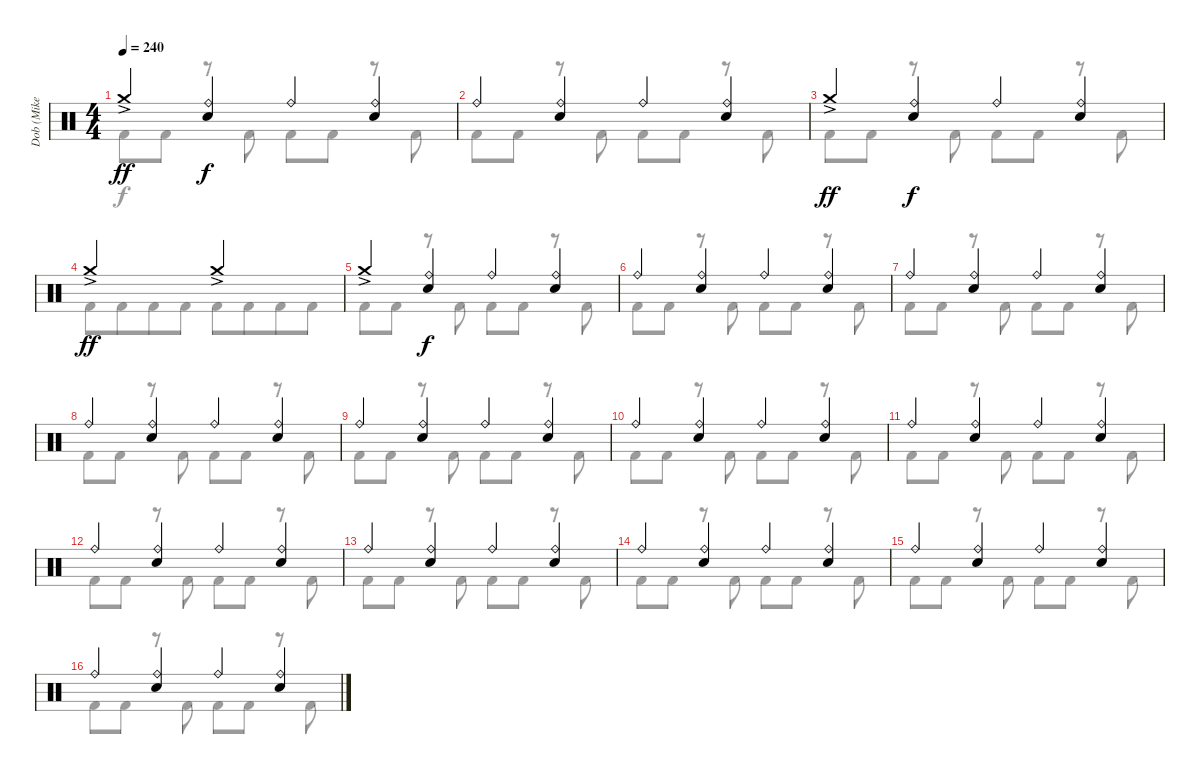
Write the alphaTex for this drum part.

\track ("Dob (Mike Terrana)" "Dob (Mike ") {instrument percussion}
\staff {score}
\articulation defaults
\voice
\ts (4 4)
\tempo 240
\clef neutral
\ks c "Crash medium (hit)"{ac}.4{dy ff}
("Ride (bell)" "Electric Snare (hit)").4{dy f} "Ride (bell)".4 ("Ride (bell)" "Electric Snare (hit)").4 |
"Ride (bell)".4 ("Ride (bell)" "Electric Snare (hit)").4 "Ride (bell)".4 ("Ride (bell)" "Electric Snare (hit)").4 |
"Crash medium (hit)"{ac}.4{dy ff} ("Ride (bell)" "Electric Snare (hit)").4{dy f} "Ride (bell)".4 ("Ride (bell)" "Electric Snare (hit)").4 |
"Crash medium (hit)"{ac}.2{dy ff} "Crash medium (hit)"{ac}.2 |
"Crash medium (hit)"{ac}.4 ("Ride (bell)" "Electric Snare (hit)").4{dy f} "Ride (bell)".4 ("Ride (bell)" "Electric Snare (hit)").4 |
"Ride (bell)".4 ("Ride (bell)" "Electric Snare (hit)").4 "Ride (bell)".4 ("Ride (bell)" "Electric Snare (hit)").4 |
"Ride (bell)".4 ("Ride (bell)" "Electric Snare (hit)").4 "Ride (bell)".4 ("Ride (bell)" "Electric Snare (hit)").4 |
"Ride (bell)".4 ("Ride (bell)" "Electric Snare (hit)").4 "Ride (bell)".4 ("Ride (bell)" "Electric Snare (hit)").4 |
"Ride (bell)".4 ("Ride (bell)" "Electric Snare (hit)").4 "Ride (bell)".4 ("Ride (bell)" "Electric Snare (hit)").4 |
"Ride (bell)".4 ("Ride (bell)" "Electric Snare (hit)").4 "Ride (bell)".4 ("Ride (bell)" "Electric Snare (hit)").4 |
"Ride (bell)".4 ("Ride (bell)" "Electric Snare (hit)").4 "Ride (bell)".4 ("Ride (bell)" "Electric Snare (hit)").4 |
"Ride (bell)".4 ("Ride (bell)" "Electric Snare (hit)").4 "Ride (bell)".4 ("Ride (bell)" "Electric Snare (hit)").4 |
"Ride (bell)".4 ("Ride (bell)" "Electric Snare (hit)").4 "Ride (bell)".4 ("Ride (bell)" "Electric Snare (hit)").4 |
"Ride (bell)".4 ("Ride (bell)" "Electric Snare (hit)").4 "Ride (bell)".4 ("Ride (bell)" "Electric Snare (hit)").4 |
"Ride (bell)".4 ("Ride (bell)" "Electric Snare (hit)").4 "Ride (bell)".4 ("Ride (bell)" "Electric Snare (hit)").4 |
"Ride (bell)".4 ("Ride (bell)" "Electric Snare (hit)").4 "Ride (bell)".4 ("Ride (bell)" "Electric Snare (hit)").4
\voice
\clef neutral
\ottava regular
\simile none
\ks c "Kick (hit) 2".8{dy f} "Kick (hit) 2".8
r.8 "Kick (hit) 2".8 "Kick (hit) 2".8 "Kick (hit) 2".8 r.8 "Kick (hit) 2".8 |
"Kick (hit) 2".8 "Kick (hit) 2".8 r.8 "Kick (hit) 2".8 "Kick (hit) 2".8 "Kick (hit) 2".8 r.8 "Kick (hit) 2".8 |
"Kick (hit) 2".8 "Kick (hit) 2".8 r.8 "Kick (hit) 2".8 "Kick (hit) 2".8 "Kick (hit) 2".8 r.8 "Kick (hit) 2".8 |
"Kick (hit) 2".8 "Kick (hit) 2".8{beam merge} "Kick (hit) 2".8 "Kick (hit) 2".8 "Kick (hit) 2".8 "Kick (hit) 2".8{beam merge} "Kick (hit) 2".8 "Kick (hit) 2".8 |
"Kick (hit) 2".8 "Kick (hit) 2".8 r.8 "Kick (hit) 2".8 "Kick (hit) 2".8 "Kick (hit) 2".8 r.8 "Kick (hit) 2".8 |
"Kick (hit) 2".8 "Kick (hit) 2".8 r.8 "Kick (hit) 2".8 "Kick (hit) 2".8 "Kick (hit) 2".8 r.8 "Kick (hit) 2".8 |
"Kick (hit) 2".8 "Kick (hit) 2".8 r.8 "Kick (hit) 2".8 "Kick (hit) 2".8 "Kick (hit) 2".8 r.8 "Kick (hit) 2".8 |
"Kick (hit) 2".8 "Kick (hit) 2".8 r.8 "Kick (hit) 2".8 "Kick (hit) 2".8 "Kick (hit) 2".8 r.8 "Kick (hit) 2".8 |
"Kick (hit) 2".8 "Kick (hit) 2".8 r.8 "Kick (hit) 2".8 "Kick (hit) 2".8 "Kick (hit) 2".8 r.8 "Kick (hit) 2".8 |
"Kick (hit) 2".8 "Kick (hit) 2".8 r.8 "Kick (hit) 2".8 "Kick (hit) 2".8 "Kick (hit) 2".8 r.8 "Kick (hit) 2".8 |
"Kick (hit) 2".8 "Kick (hit) 2".8 r.8 "Kick (hit) 2".8 "Kick (hit) 2".8 "Kick (hit) 2".8 r.8 "Kick (hit) 2".8 |
"Kick (hit) 2".8 "Kick (hit) 2".8 r.8 "Kick (hit) 2".8 "Kick (hit) 2".8 "Kick (hit) 2".8 r.8 "Kick (hit) 2".8 |
"Kick (hit) 2".8 "Kick (hit) 2".8 r.8 "Kick (hit) 2".8 "Kick (hit) 2".8 "Kick (hit) 2".8 r.8 "Kick (hit) 2".8 |
"Kick (hit) 2".8 "Kick (hit) 2".8 r.8 "Kick (hit) 2".8 "Kick (hit) 2".8 "Kick (hit) 2".8 r.8 "Kick (hit) 2".8 |
"Kick (hit) 2".8 "Kick (hit) 2".8 r.8 "Kick (hit) 2".8 "Kick (hit) 2".8 "Kick (hit) 2".8 r.8 "Kick (hit) 2".8 |
"Kick (hit) 2".8 "Kick (hit) 2".8 r.8 "Kick (hit) 2".8 "Kick (hit) 2".8 "Kick (hit) 2".8 r.8 "Kick (hit) 2".8
